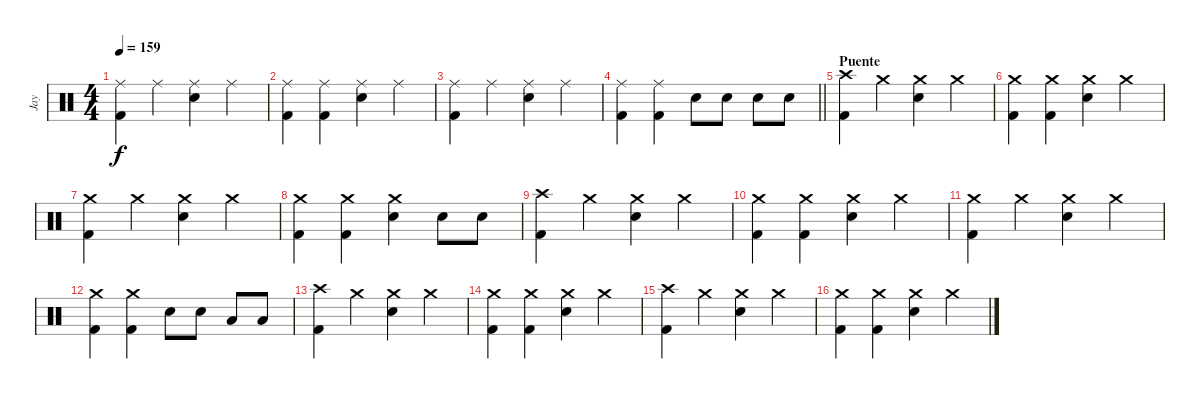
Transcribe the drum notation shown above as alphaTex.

\track ("Jay" "Jay") {instrument percussion}
\staff {score}
\articulation defaults
\ts (4 4)
\tempo 159
\clef neutral
\ks c
("Ride (middle)" "Kick (hit) 2").4{dy f} "Ride (middle)".4 ("Ride (middle)" "Electric Snare (hit)").4 "Ride (middle)".4 |
("Ride (middle)" "Kick (hit) 2").4 ("Ride (middle)" "Kick (hit) 2").4 ("Ride (middle)" "Electric Snare (hit)").4 "Ride (middle)".4 |
("Ride (middle)" "Kick (hit) 2").4 "Ride (middle)".4 ("Ride (middle)" "Electric Snare (hit)").4 "Ride (middle)".4 |
\barLineRight lightlight
("Ride (middle)" "Kick (hit) 2").4 ("Ride (middle)" "Kick (hit) 2").4 "Electric Snare (hit)".8 "Electric Snare (hit)".8 "Electric Snare (hit)".8 "Electric Snare (hit)".8 |
\section ("" "Puente")
("Crash high (hit)" "Kick (hit) 2").4 "Crash medium (hit)".4 ("Crash medium (hit)" "Electric Snare (hit)").4 "Crash medium (hit)".4 |
("Crash medium (hit)" "Kick (hit) 2").4 ("Crash medium (hit)" "Kick (hit) 2").4 ("Crash medium (hit)" "Electric Snare (hit)").4 "Crash medium (hit)".4 |
("Crash medium (hit)" "Kick (hit) 2").4 "Crash medium (hit)".4 ("Crash medium (hit)" "Electric Snare (hit)").4 "Crash medium (hit)".4 |
("Crash medium (hit)" "Kick (hit) 2").4 ("Crash medium (hit)" "Kick (hit) 2").4 ("Crash medium (hit)" "Electric Snare (hit)").4 "Electric Snare (hit)".8 "Electric Snare (hit)".8 |
("Crash high (hit)" "Kick (hit) 2").4 "Crash medium (hit)".4 ("Crash medium (hit)" "Electric Snare (hit)").4 "Crash medium (hit)".4 |
("Crash medium (hit)" "Kick (hit) 2").4 ("Crash medium (hit)" "Kick (hit) 2").4 ("Crash medium (hit)" "Electric Snare (hit)").4 "Crash medium (hit)".4 |
("Crash medium (hit)" "Kick (hit) 2").4 "Crash medium (hit)".4 ("Crash medium (hit)" "Electric Snare (hit)").4 "Crash medium (hit)".4 |
("Crash medium (hit)" "Kick (hit) 2").4 ("Crash medium (hit)" "Kick (hit) 2").4 "Electric Snare (hit)".8 "Electric Snare (hit)".8 "Low Tom (hit)".8 "Low Tom (hit)".8 |
("Crash high (hit)" "Kick (hit) 2").4 "Crash medium (hit)".4 ("Crash medium (hit)" "Electric Snare (hit)").4 "Crash medium (hit)".4 |
("Crash medium (hit)" "Kick (hit) 2").4 ("Crash medium (hit)" "Kick (hit) 2").4 ("Crash medium (hit)" "Electric Snare (hit)").4 "Crash medium (hit)".4 |
("Crash high (hit)" "Kick (hit) 2").4 "Crash medium (hit)".4 ("Crash medium (hit)" "Electric Snare (hit)").4 "Crash medium (hit)".4 |
("Crash medium (hit)" "Kick (hit) 2").4 ("Crash medium (hit)" "Kick (hit) 2").4 ("Crash medium (hit)" "Electric Snare (hit)").4 "Crash medium (hit)".4
